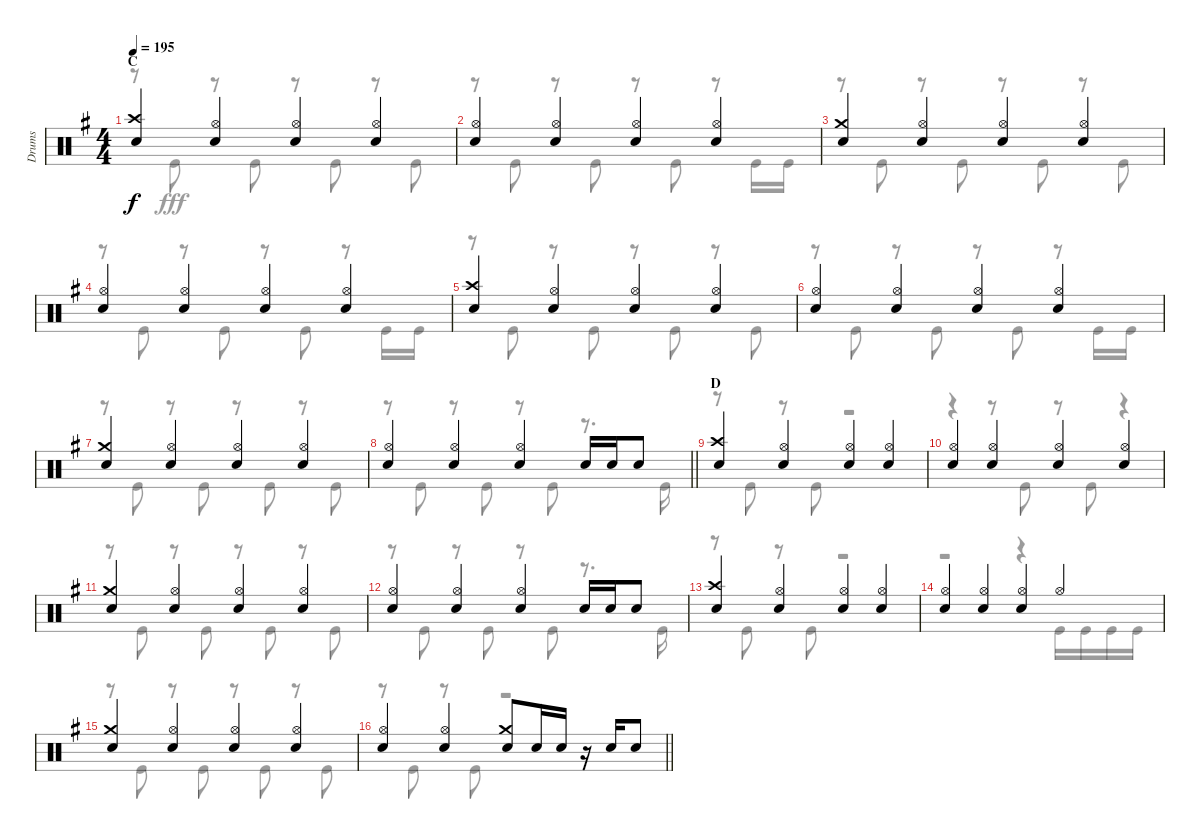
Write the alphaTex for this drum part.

\track ("Drums" "Drums") {instrument percussion}
\staff {score}
\articulation defaults
\voice
\ts (4 4)
\section ("" "C")
\tempo 195
\clef neutral
\ks g
("Crash high (hit)" "Snare (hit) 2").4{dy f} ("Hi-Hat (open)" "Snare (hit) 2").4 ("Hi-Hat (open)" "Snare (hit) 2").4 ("Hi-Hat (open)" "Snare (hit) 2").4 |
("Hi-Hat (open)" "Snare (hit) 2").4 ("Hi-Hat (open)" "Snare (hit) 2").4 ("Hi-Hat (open)" "Snare (hit) 2").4 ("Hi-Hat (open)" "Snare (hit) 2").4 |
("Crash medium (hit)" "Snare (hit) 2").4 ("Hi-Hat (open)" "Snare (hit) 2").4 ("Hi-Hat (open)" "Snare (hit) 2").4 ("Hi-Hat (open)" "Snare (hit) 2").4 |
("Hi-Hat (open)" "Snare (hit) 2").4 ("Hi-Hat (open)" "Snare (hit) 2").4 ("Hi-Hat (open)" "Snare (hit) 2").4 ("Hi-Hat (open)" "Snare (hit) 2").4 |
("Crash high (hit)" "Snare (hit) 2").4 ("Hi-Hat (open)" "Snare (hit) 2").4 ("Hi-Hat (open)" "Snare (hit) 2").4 ("Hi-Hat (open)" "Snare (hit) 2").4 |
("Hi-Hat (open)" "Snare (hit) 2").4 ("Hi-Hat (open)" "Snare (hit) 2").4 ("Hi-Hat (open)" "Snare (hit) 2").4 ("Hi-Hat (open)" "Snare (hit) 2").4 |
("Crash medium (hit)" "Snare (hit) 2").4 ("Hi-Hat (open)" "Snare (hit) 2").4 ("Hi-Hat (open)" "Snare (hit) 2").4 ("Hi-Hat (open)" "Snare (hit) 2").4 |
\barLineRight lightlight
("Hi-Hat (open)" "Snare (hit) 2").4 ("Hi-Hat (open)" "Snare (hit) 2").4 ("Hi-Hat (open)" "Snare (hit) 2").4 "Snare (hit) 2".16 "Snare (hit) 2".16 "Snare (hit) 2".8 |
\section ("" "D")
("Crash high (hit)" "Snare (hit) 2").4 ("Hi-Hat (open)" "Snare (hit) 2").4 ("Hi-Hat (open)" "Snare (hit) 2").4 ("Hi-Hat (open)" "Snare (hit) 2").4 |
("Hi-Hat (open)" "Snare (hit) 2").4 ("Hi-Hat (open)" "Snare (hit) 2").4 ("Hi-Hat (open)" "Snare (hit) 2").4 ("Hi-Hat (open)" "Snare (hit) 2").4 |
("Crash medium (hit)" "Snare (hit) 2").4 ("Hi-Hat (open)" "Snare (hit) 2").4 ("Hi-Hat (open)" "Snare (hit) 2").4 ("Hi-Hat (open)" "Snare (hit) 2").4 |
("Hi-Hat (open)" "Snare (hit) 2").4 ("Hi-Hat (open)" "Snare (hit) 2").4 ("Hi-Hat (open)" "Snare (hit) 2").4 "Snare (hit) 2".16 "Snare (hit) 2".16 "Snare (hit) 2".8 |
("Crash high (hit)" "Snare (hit) 2").4 ("Hi-Hat (open)" "Snare (hit) 2").4 ("Hi-Hat (open)" "Snare (hit) 2").4 ("Hi-Hat (open)" "Snare (hit) 2").4 |
("Hi-Hat (open)" "Snare (hit) 2").4 ("Hi-Hat (open)" "Snare (hit) 2").4 ("Hi-Hat (open)" "Snare (hit) 2").4 "Hi-Hat (open)".4 |
("Crash medium (hit)" "Snare (hit) 2").4 ("Hi-Hat (open)" "Snare (hit) 2").4 ("Hi-Hat (open)" "Snare (hit) 2").4 ("Hi-Hat (open)" "Snare (hit) 2").4 |
\barLineRight lightlight
("Hi-Hat (open)" "Snare (hit) 2").4 ("Hi-Hat (open)" "Snare (hit) 2").4 ("Crash medium (hit)" "Snare (hit) 2").8 "Snare (hit) 2".16 "Snare (hit) 2".16 r.16 "Snare (hit) 2".16 "Snare (hit) 2".8
\voice
\clef neutral
\ottava regular
\simile none
\ks g
r.8{dy fff} "Kick (hit)".8 r.8 "Kick (hit)".8 r.8 "Kick (hit)".8 r.8 "Kick (hit)".8 |
r.8 "Kick (hit)".8 r.8 "Kick (hit)".8 r.8 "Kick (hit)".8 r.8 "Kick (hit)".16 "Kick (hit)".16 |
r.8 "Kick (hit)".8 r.8 "Kick (hit)".8 r.8 "Kick (hit)".8 r.8 "Kick (hit)".8 |
r.8 "Kick (hit)".8 r.8 "Kick (hit)".8 r.8 "Kick (hit)".8 r.8 "Kick (hit)".16 "Kick (hit)".16 |
r.8 "Kick (hit)".8 r.8 "Kick (hit)".8 r.8 "Kick (hit)".8 r.8 "Kick (hit)".8 |
r.8 "Kick (hit)".8 r.8 "Kick (hit)".8 r.8 "Kick (hit)".8 r.8 "Kick (hit)".16 "Kick (hit)".16 |
r.8 "Kick (hit)".8 r.8 "Kick (hit)".8 r.8 "Kick (hit)".8 r.8 "Kick (hit)".8 |
\barLineRight lightlight
r.8 "Kick (hit)".8 r.8 "Kick (hit)".8 r.8 "Kick (hit)".8 r.8{d} "Kick (hit)".16 |
r.8 "Kick (hit)".8 r.8 "Kick (hit)".8 r.2 |
r.4 r.8 "Kick (hit)".8 r.8 "Kick (hit)".8 r.4 |
r.8 "Kick (hit)".8 r.8 "Kick (hit)".8 r.8 "Kick (hit)".8 r.8 "Kick (hit)".8 |
r.8 "Kick (hit)".8 r.8 "Kick (hit)".8 r.8 "Kick (hit)".8 r.8{d} "Kick (hit)".16 |
r.8 "Kick (hit)".8 r.8 "Kick (hit)".8 r.2 |
r.2 r.4 "Kick (hit)".16 "Kick (hit)".16 "Kick (hit)".16 "Kick (hit)".16 |
r.8 "Kick (hit)".8 r.8 "Kick (hit)".8 r.8 "Kick (hit)".8 r.8 "Kick (hit)".8 |
\barLineRight lightlight
r.8 "Kick (hit)".8 r.8 "Kick (hit)".8 r.2
